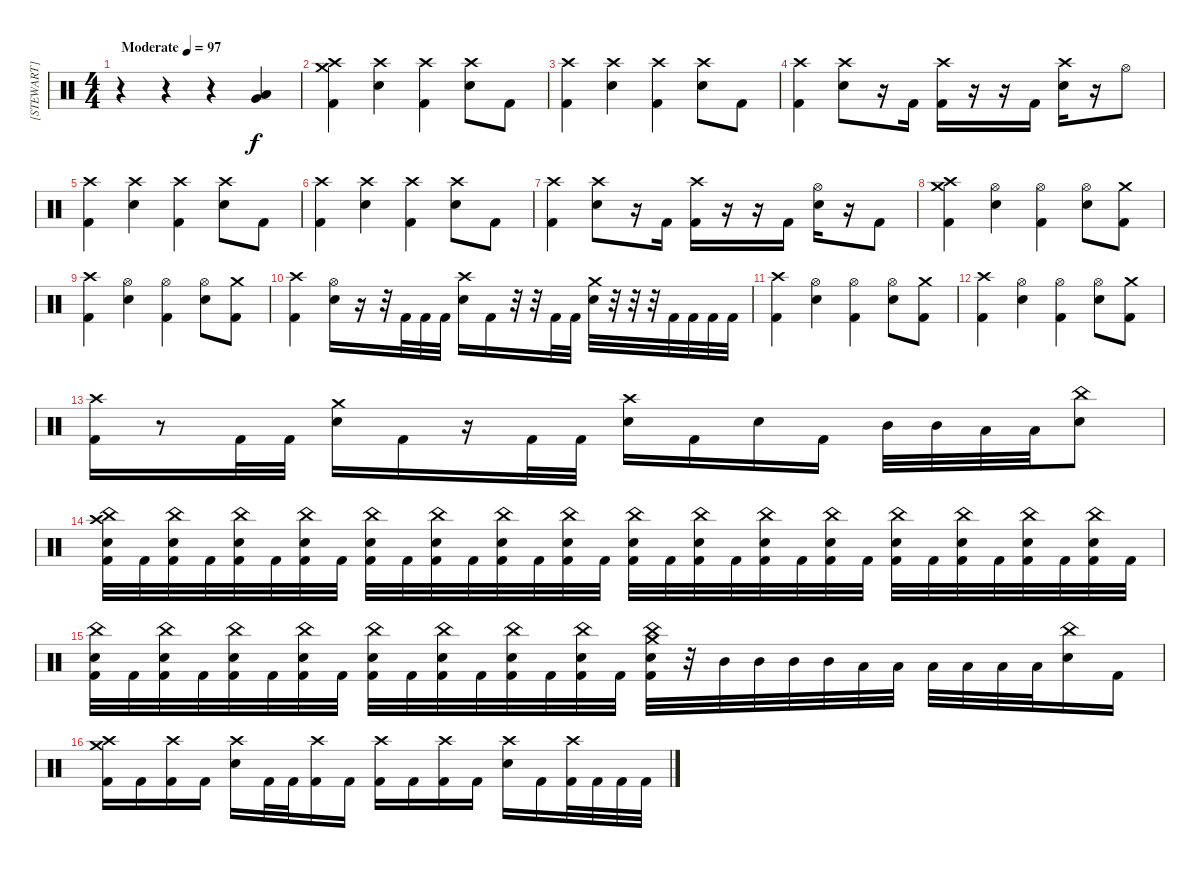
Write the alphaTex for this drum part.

\track ("[STEWART]" "[STEWART]") {instrument percussion}
\staff {score}
\articulation defaults
\ts (4 4)
\tempo (97 "Moderate")
\clef neutral
\ks c
r.4{dy f} r.4 r.4 ("Low Tom (hit)" "Very Low Tom (hit)").4 |
("Crash high (hit)" "Crash medium (hit)" "Kick (hit) 2").4 ("Crash high (hit)" "Electric Snare (hit)").4 ("Crash high (hit)" "Kick (hit) 2").4 ("Crash high (hit)" "Electric Snare (hit)").8 "Kick (hit) 2".8 |
("Crash high (hit)" "Kick (hit) 2").4 ("Crash high (hit)" "Electric Snare (hit)").4 ("Crash high (hit)" "Kick (hit) 2").4 ("Crash high (hit)" "Electric Snare (hit)").8 "Kick (hit) 2".8 |
("Crash high (hit)" "Kick (hit) 2").4 ("Crash high (hit)" "Electric Snare (hit)").8 r.16 "Kick (hit) 2".16 ("Crash high (hit)" "Kick (hit) 2").16 r.16 r.16 "Kick (hit) 2".16 ("Crash high (hit)" "Electric Snare (hit)").16 r.16 "Hi-Hat (open)".8 |
("Crash high (hit)" "Kick (hit) 2").4 ("Crash high (hit)" "Electric Snare (hit)").4 ("Crash high (hit)" "Kick (hit) 2").4 ("Crash high (hit)" "Electric Snare (hit)").8 "Kick (hit) 2".8 |
("Crash high (hit)" "Kick (hit) 2").4 ("Crash high (hit)" "Electric Snare (hit)").4 ("Crash high (hit)" "Kick (hit) 2").4 ("Crash high (hit)" "Electric Snare (hit)").8 "Kick (hit) 2".8 |
("Crash high (hit)" "Kick (hit) 2").4 ("Crash high (hit)" "Electric Snare (hit)").8 r.16 "Kick (hit) 2".16 ("Crash high (hit)" "Kick (hit) 2").16 r.16 r.16 "Kick (hit) 2".16 ("Hi-Hat (open)" "Electric Snare (hit)").16 r.16 "Kick (hit) 2".8 |
("Crash high (hit)" "Crash medium (hit)" "Kick (hit) 2").4 ("Hi-Hat (open)" "Electric Snare (hit)").4 ("Hi-Hat (open)" "Kick (hit) 2").4 ("Hi-Hat (open)" "Electric Snare (hit)").8 ("Crash medium (hit)" "Kick (hit) 2").8 |
("Crash high (hit)" "Kick (hit) 2").4 ("Hi-Hat (open)" "Electric Snare (hit)").4 ("Hi-Hat (open)" "Kick (hit) 2").4 ("Hi-Hat (open)" "Electric Snare (hit)").8 ("Crash medium (hit)" "Kick (hit) 2").8 |
("Crash high (hit)" "Kick (hit) 2").4 ("Hi-Hat (open)" "Electric Snare (hit)").16 r.16 r.32 "Kick (hit) 2".32 "Kick (hit) 2".32 "Kick (hit) 2".32 ("Crash high (hit)" "Electric Snare (hit)").16 "Kick (hit) 2".16 r.32 r.32 "Kick (hit) 2".32 "Kick (hit) 2".32 ("Crash medium (hit)" "Electric Snare (hit)").32 r.32 r.32 r.32 "Kick (hit) 2".32 "Kick (hit) 2".32 "Kick (hit) 2".32 "Kick (hit) 2".32 |
("Crash high (hit)" "Kick (hit) 2").4 ("Hi-Hat (open)" "Electric Snare (hit)").4 ("Hi-Hat (open)" "Kick (hit) 2").4 ("Hi-Hat (open)" "Electric Snare (hit)").8 ("Crash medium (hit)" "Kick (hit) 2").8 |
("Crash high (hit)" "Kick (hit) 2").4 ("Hi-Hat (open)" "Electric Snare (hit)").4 ("Hi-Hat (open)" "Kick (hit) 2").4 ("Hi-Hat (open)" "Electric Snare (hit)").8 ("Crash medium (hit)" "Kick (hit) 2").8 |
("Crash high (hit)" "Kick (hit) 2").16 r.8 "Kick (hit) 2".32 "Kick (hit) 2".32 ("Crash medium (hit)" "Electric Snare (hit)").16 "Kick (hit) 2".16 r.16 "Kick (hit) 2".32 "Kick (hit) 2".32 ("Crash high (hit)" "Electric Snare (hit)").16 "Kick (hit) 2".16 "Electric Snare (hit)".16 "Kick (hit) 2".16 "Mid Tom (hit)".32 "Mid Tom (hit)".32 "Low Tom (hit)".32 "Low Tom (hit)".32 ("China (hit)" "Electric Snare (hit)").8 |
("China (hit)" "Crash high (hit)" "Electric Snare (hit)" "Kick (hit) 2").32 "Kick (hit) 2".32 ("China (hit)" "Electric Snare (hit)" "Kick (hit) 2").32 "Kick (hit) 2".32 ("China (hit)" "Electric Snare (hit)" "Kick (hit) 2").32 "Kick (hit) 2".32 ("China (hit)" "Electric Snare (hit)" "Kick (hit) 2").32 "Kick (hit) 2".32 ("China (hit)" "Electric Snare (hit)" "Kick (hit) 2").32 "Kick (hit) 2".32 ("China (hit)" "Electric Snare (hit)" "Kick (hit) 2").32 "Kick (hit) 2".32 ("China (hit)" "Electric Snare (hit)" "Kick (hit) 2").32 "Kick (hit) 2".32 ("China (hit)" "Electric Snare (hit)" "Kick (hit) 2").32 "Kick (hit) 2".32 ("China (hit)" "Electric Snare (hit)" "Kick (hit) 2").32 "Kick (hit) 2".32 ("China (hit)" "Electric Snare (hit)" "Kick (hit) 2").32 "Kick (hit) 2".32 ("China (hit)" "Electric Snare (hit)" "Kick (hit) 2").32 "Kick (hit) 2".32 ("China (hit)" "Electric Snare (hit)" "Kick (hit) 2").32 "Kick (hit) 2".32 ("China (hit)" "Electric Snare (hit)" "Kick (hit) 2").32 "Kick (hit) 2".32 ("China (hit)" "Electric Snare (hit)" "Kick (hit) 2").32 "Kick (hit) 2".32 ("China (hit)" "Electric Snare (hit)" "Kick (hit) 2").32 "Kick (hit) 2".32 ("China (hit)" "Electric Snare (hit)" "Kick (hit) 2").32 "Kick (hit) 2".32 |
("China (hit)" "Electric Snare (hit)" "Kick (hit) 2").32 "Kick (hit) 2".32 ("China (hit)" "Electric Snare (hit)" "Kick (hit) 2").32 "Kick (hit) 2".32 ("China (hit)" "Electric Snare (hit)" "Kick (hit) 2").32 "Kick (hit) 2".32 ("China (hit)" "Electric Snare (hit)" "Kick (hit) 2").32 "Kick (hit) 2".32 ("China (hit)" "Electric Snare (hit)" "Kick (hit) 2").32 "Kick (hit) 2".32 ("China (hit)" "Electric Snare (hit)" "Kick (hit) 2").32 "Kick (hit) 2".32 ("China (hit)" "Electric Snare (hit)" "Kick (hit) 2").32 "Kick (hit) 2".32 ("China (hit)" "Electric Snare (hit)" "Kick (hit) 2").32 "Kick (hit) 2".32 ("China (hit)" "Crash medium (hit)" "Electric Snare (hit)" "Kick (hit) 2").32 r.32 "Mid Tom (hit)".32 "Mid Tom (hit)".32 "Mid Tom (hit)".32 "Mid Tom (hit)".32 "Low Tom (hit)".32 "Low Tom (hit)".32 "Low Tom (hit)".32 "Low Tom (hit)".32 "Low Tom (hit)".32 "Low Tom (hit)".32 ("China (hit)" "Electric Snare (hit)").16 "Kick (hit) 2".16 |
("Crash high (hit)" "Crash medium (hit)" "Kick (hit) 2").16 "Kick (hit) 2".16 ("Crash high (hit)" "Kick (hit) 2").16 "Kick (hit) 2".16 ("Crash high (hit)" "Electric Snare (hit)").16 "Kick (hit) 2".32 "Kick (hit) 2".32 ("Crash high (hit)" "Kick (hit) 2").16 "Kick (hit) 2".16 ("Crash high (hit)" "Kick (hit) 2").16 "Kick (hit) 2".16 ("Crash high (hit)" "Kick (hit) 2").16 "Kick (hit) 2".16 ("Crash high (hit)" "Electric Snare (hit)").16 "Kick (hit) 2".16 ("Crash high (hit)" "Kick (hit) 2").32 "Kick (hit) 2".32 "Kick (hit) 2".32 "Kick (hit) 2".32
